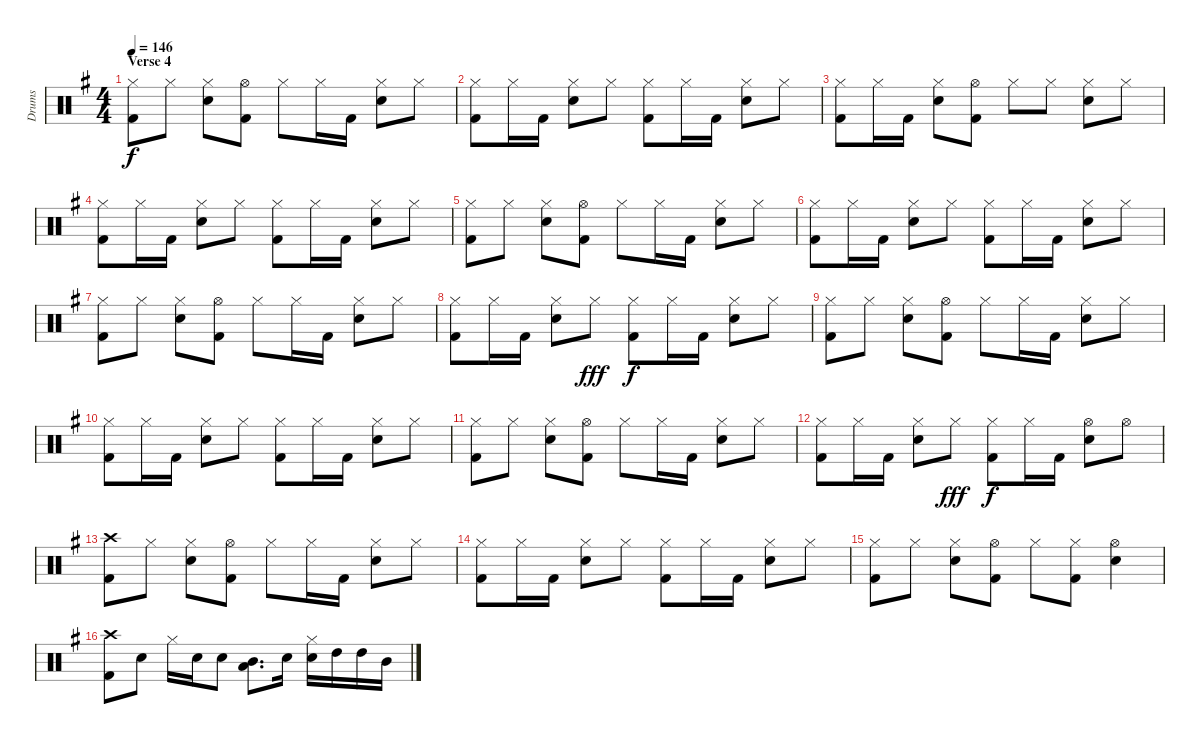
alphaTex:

\track ("Drums" "Drums") {instrument percussion}
\staff {score}
\articulation defaults
\ts (4 4)
\section ("" "Verse 4")
\tempo 146
\clef neutral
\ks g
("Kick (hit) 2" "Hi-Hat (closed)").8{dy f} "Hi-Hat (closed)".8 ("Snare (hit) 2" "Hi-Hat (closed)").8 ("Kick (hit) 2" "Hi-Hat (open)").8 "Hi-Hat (closed)".8 "Hi-Hat (closed)".16 "Kick (hit) 2".16 ("Snare (hit) 2" "Hi-Hat (closed)").8 "Hi-Hat (closed)".8 |
("Kick (hit) 2" "Hi-Hat (closed)").8 "Hi-Hat (closed)".16 "Kick (hit) 2".16 ("Snare (hit) 2" "Hi-Hat (closed)").8 "Hi-Hat (closed)".8 ("Kick (hit) 2" "Hi-Hat (closed)").8 "Hi-Hat (closed)".16 "Kick (hit) 2".16 ("Snare (hit) 2" "Hi-Hat (closed)").8 "Hi-Hat (closed)".8 |
("Kick (hit) 2" "Hi-Hat (closed)").8 "Hi-Hat (closed)".16 "Kick (hit) 2".16 ("Snare (hit) 2" "Hi-Hat (closed)").8 ("Kick (hit) 2" "Hi-Hat (open)").8 "Hi-Hat (closed)".8 "Hi-Hat (closed)".8 ("Snare (hit) 2" "Hi-Hat (closed)").8 "Hi-Hat (closed)".8 |
("Kick (hit) 2" "Hi-Hat (closed)").8 "Hi-Hat (closed)".16 "Kick (hit) 2".16 ("Snare (hit) 2" "Hi-Hat (closed)").8 "Hi-Hat (closed)".8 ("Kick (hit) 2" "Hi-Hat (closed)").8 "Hi-Hat (closed)".16 "Kick (hit) 2".16 ("Snare (hit) 2" "Hi-Hat (closed)").8 "Hi-Hat (closed)".8 |
("Kick (hit) 2" "Hi-Hat (closed)").8 "Hi-Hat (closed)".8 ("Snare (hit) 2" "Hi-Hat (closed)").8 ("Kick (hit) 2" "Hi-Hat (open)").8 "Hi-Hat (closed)".8 "Hi-Hat (closed)".16 "Kick (hit) 2".16 ("Snare (hit) 2" "Hi-Hat (closed)").8 "Hi-Hat (closed)".8 |
("Kick (hit) 2" "Hi-Hat (closed)").8 "Hi-Hat (closed)".16 "Kick (hit) 2".16 ("Snare (hit) 2" "Hi-Hat (closed)").8 "Hi-Hat (closed)".8 ("Kick (hit) 2" "Hi-Hat (closed)").8 "Hi-Hat (closed)".16 "Kick (hit) 2".16 ("Snare (hit) 2" "Hi-Hat (closed)").8 "Hi-Hat (closed)".8 |
("Kick (hit) 2" "Hi-Hat (closed)").8 "Hi-Hat (closed)".8 ("Snare (hit) 2" "Hi-Hat (closed)").8 ("Kick (hit) 2" "Hi-Hat (open)").8 "Hi-Hat (closed)".8 "Hi-Hat (closed)".16 "Kick (hit) 2".16 ("Snare (hit) 2" "Hi-Hat (closed)").8 "Hi-Hat (closed)".8 |
("Kick (hit) 2" "Hi-Hat (closed)").8 "Hi-Hat (closed)".16 "Kick (hit) 2".16 ("Snare (hit) 2" "Hi-Hat (closed)").8 "Hi-Hat (closed)".8{dy fff} ("Kick (hit) 2" "Hi-Hat (closed)").8{dy f} "Hi-Hat (closed)".16 "Kick (hit) 2".16 ("Snare (hit) 2" "Hi-Hat (closed)").8 "Hi-Hat (closed)".8 |
("Kick (hit) 2" "Hi-Hat (closed)").8 "Hi-Hat (closed)".8 ("Snare (hit) 2" "Hi-Hat (closed)").8 ("Kick (hit) 2" "Hi-Hat (open)").8 "Hi-Hat (closed)".8 "Hi-Hat (closed)".16 "Kick (hit) 2".16 ("Snare (hit) 2" "Hi-Hat (closed)").8 "Hi-Hat (closed)".8 |
("Kick (hit) 2" "Hi-Hat (closed)").8 "Hi-Hat (closed)".16 "Kick (hit) 2".16 ("Snare (hit) 2" "Hi-Hat (closed)").8 "Hi-Hat (closed)".8 ("Kick (hit) 2" "Hi-Hat (closed)").8 "Hi-Hat (closed)".16 "Kick (hit) 2".16 ("Snare (hit) 2" "Hi-Hat (closed)").8 "Hi-Hat (closed)".8 |
("Kick (hit) 2" "Hi-Hat (closed)").8 "Hi-Hat (closed)".8 ("Snare (hit) 2" "Hi-Hat (closed)").8 ("Kick (hit) 2" "Hi-Hat (open)").8 "Hi-Hat (closed)".8 "Hi-Hat (closed)".16 "Kick (hit) 2".16 ("Snare (hit) 2" "Hi-Hat (closed)").8 "Hi-Hat (closed)".8 |
("Kick (hit) 2" "Hi-Hat (closed)").8 "Hi-Hat (closed)".16 "Kick (hit) 2".16 ("Snare (hit) 2" "Hi-Hat (closed)").8 "Hi-Hat (closed)".8{dy fff} ("Kick (hit) 2" "Hi-Hat (closed)").8{dy f} "Hi-Hat (closed)".16 "Kick (hit) 2".16 ("Snare (hit) 2" "Hi-Hat (open)").8 "Hi-Hat (open)".8 |
("Kick (hit) 2" "Crash high (hit)").8 "Hi-Hat (closed)".8 ("Snare (hit) 2" "Hi-Hat (closed)").8 ("Kick (hit) 2" "Hi-Hat (open)").8 "Hi-Hat (closed)".8 "Hi-Hat (closed)".16 "Kick (hit) 2".16 ("Snare (hit) 2" "Hi-Hat (closed)").8 "Hi-Hat (closed)".8 |
("Kick (hit) 2" "Hi-Hat (closed)").8 "Hi-Hat (closed)".16 "Kick (hit) 2".16 ("Snare (hit) 2" "Hi-Hat (closed)").8 "Hi-Hat (closed)".8 ("Kick (hit) 2" "Hi-Hat (closed)").8 "Hi-Hat (closed)".16 "Kick (hit) 2".16 ("Snare (hit) 2" "Hi-Hat (closed)").8 "Hi-Hat (closed)".8 |
("Kick (hit) 2" "Hi-Hat (closed)").8 "Hi-Hat (closed)".8 ("Snare (hit) 2" "Hi-Hat (closed)").8 ("Kick (hit) 2" "Hi-Hat (open)").8 "Hi-Hat (closed)".8 ("Kick (hit) 2" "Hi-Hat (closed)").8 ("Snare (hit) 2" "Hi-Hat (open)").4 |
("Kick (hit) 2" "Crash high (hit)").8 "Snare (hit) 2".8 "Hi-Hat (closed)".16 "Snare (hit) 2".16 "Snare (hit) 2".8 ("Mid Tom (hit)" "Low Tom (hit)").8{d} "Snare (hit) 2".16 ("Snare (hit) 2" "Hi-Hat (closed)").16 "High Tom (hit)".16 "High Tom (hit)".16 "Mid Tom (hit)".16
